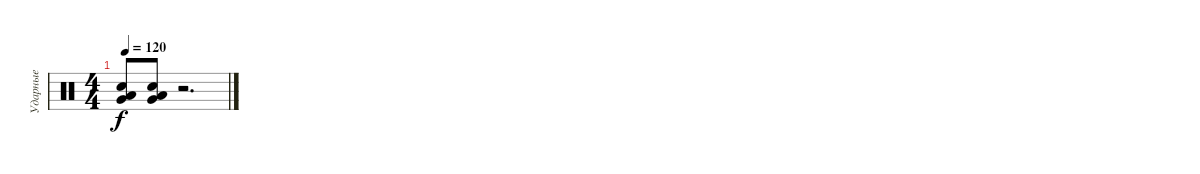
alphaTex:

\track ("Ударные" "Ударные") {instrument percussion}
\staff {score}
\articulation defaults
\ts (4 4)
\tempo 120
\clef neutral
\ks c
("Very Low Tom (hit)" "Low Floor Tom (hit)" "Snare (hit) 2").8{dy f} ("Very Low Tom (hit)" "Low Floor Tom (hit)" "Snare (hit) 2").8 r.2{d}
